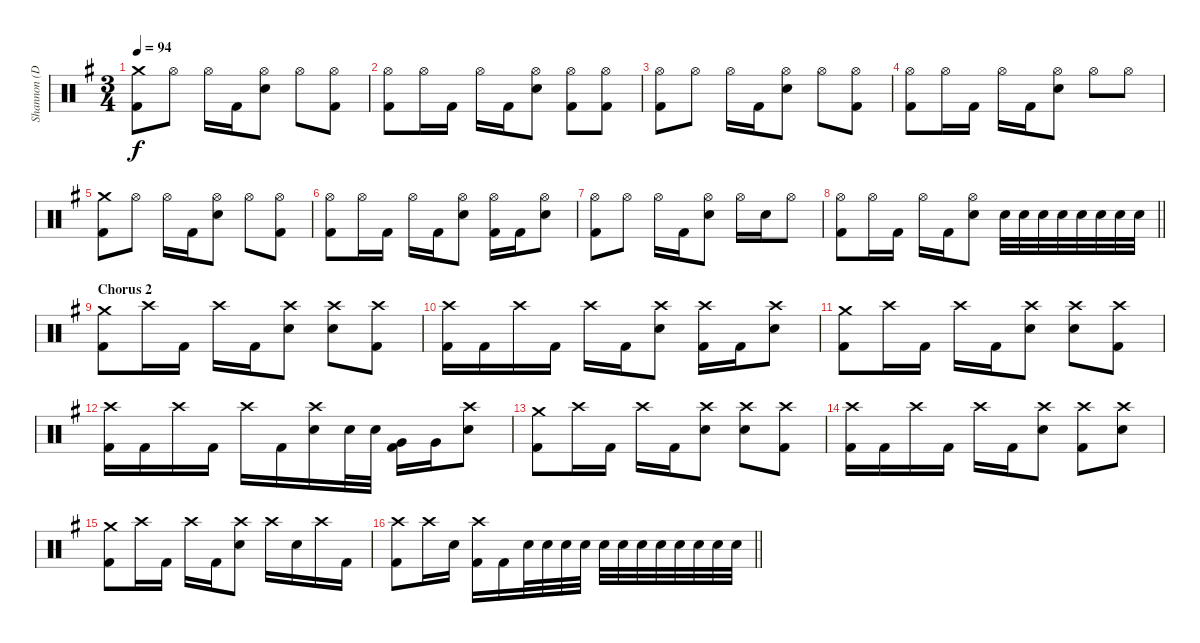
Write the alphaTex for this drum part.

\track ("Shannon (Drums)" "Shannon (D") {instrument percussion}
\staff {score}
\articulation defaults
\ts (3 4)
\tempo 94
\clef neutral
\ks g
("Crash medium (hit)" "Kick (hit) 2").8{dy f} "Hi-Hat (open)".8 "Hi-Hat (open)".16 "Kick (hit) 2".16 ("Hi-Hat (open)" "Electric Snare (hit)").8 "Hi-Hat (open)".8 ("Hi-Hat (open)" "Kick (hit) 2").8 |
("Hi-Hat (open)" "Kick (hit) 2").8 "Hi-Hat (open)".16 "Kick (hit) 2".16 "Hi-Hat (open)".16 "Kick (hit) 2".16 ("Hi-Hat (open)" "Electric Snare (hit)").8 ("Hi-Hat (open)" "Kick (hit) 2").8 ("Hi-Hat (open)" "Kick (hit) 2").8 |
("Hi-Hat (open)" "Kick (hit) 2").8 "Hi-Hat (open)".8 "Hi-Hat (open)".16 "Kick (hit) 2".16 ("Hi-Hat (open)" "Electric Snare (hit)").8 "Hi-Hat (open)".8 ("Hi-Hat (open)" "Kick (hit) 2").8 |
("Hi-Hat (open)" "Kick (hit) 2").8 "Hi-Hat (open)".16 "Kick (hit) 2".16 "Hi-Hat (open)".16 "Kick (hit) 2".16 ("Hi-Hat (open)" "Electric Snare (hit)").8 "Hi-Hat (open)".8 "Hi-Hat (open)".8 |
("Crash medium (hit)" "Kick (hit) 2").8 "Hi-Hat (open)".8 "Hi-Hat (open)".16 "Kick (hit) 2".16 ("Hi-Hat (open)" "Electric Snare (hit)").8 "Hi-Hat (open)".8 ("Hi-Hat (open)" "Kick (hit) 2").8 |
("Hi-Hat (open)" "Kick (hit) 2").8 "Hi-Hat (open)".16 "Kick (hit) 2".16 "Hi-Hat (open)".16 "Kick (hit) 2".16 ("Hi-Hat (open)" "Electric Snare (hit)").8 ("Hi-Hat (open)" "Kick (hit) 2").16 "Kick (hit) 2".16 ("Hi-Hat (open)" "Electric Snare (hit)").8 |
("Hi-Hat (open)" "Kick (hit) 2").8 "Hi-Hat (open)".8 "Hi-Hat (open)".16 "Kick (hit) 2".16 ("Hi-Hat (open)" "Electric Snare (hit)").8 "Hi-Hat (open)".16 "Electric Snare (hit)".16 "Hi-Hat (open)".8 |
\barLineRight lightlight
("Hi-Hat (open)" "Kick (hit) 2").8 "Hi-Hat (open)".16 "Kick (hit) 2".16 "Hi-Hat (open)".16 "Kick (hit) 2".16 ("Hi-Hat (open)" "Electric Snare (hit)").8 "Electric Snare (hit)".32 "Electric Snare (hit)".32 "Electric Snare (hit)".32 "Electric Snare (hit)".32 "Electric Snare (hit)".32 "Electric Snare (hit)".32 "Electric Snare (hit)".32 "Electric Snare (hit)".32 |
\section ("" "Chorus 2")
("Crash medium (hit)" "Kick (hit) 2").8 "Crash high (hit)".16 "Kick (hit) 2".16 "Crash high (hit)".16 "Kick (hit) 2".16 ("Crash high (hit)" "Electric Snare (hit)").8 ("Crash high (hit)" "Electric Snare (hit)").8 ("Crash high (hit)" "Kick (hit) 2").8 |
("Crash high (hit)" "Kick (hit) 2").16 "Kick (hit) 2".16 "Crash high (hit)".16 "Kick (hit) 2".16 "Crash high (hit)".16 "Kick (hit) 2".16 ("Crash high (hit)" "Electric Snare (hit)").8 ("Crash high (hit)" "Kick (hit) 2").16 "Kick (hit) 2".16 ("Crash high (hit)" "Electric Snare (hit)").8 |
("Crash medium (hit)" "Kick (hit) 2").8 "Crash high (hit)".16 "Kick (hit) 2".16 "Crash high (hit)".16 "Kick (hit) 2".16 ("Crash high (hit)" "Electric Snare (hit)").8 ("Crash high (hit)" "Electric Snare (hit)").8 ("Crash high (hit)" "Kick (hit) 2").8 |
("Crash high (hit)" "Kick (hit) 2").16 "Kick (hit) 2".16 "Crash high (hit)".16 "Kick (hit) 2".16 "Crash high (hit)".16 "Kick (hit) 2".16 ("Crash high (hit)" "Electric Snare (hit)").16 "Electric Snare (hit)".32 "Electric Snare (hit)".32 ("Very Low Tom (hit)" "Kick (hit) 2").16 "Very Low Tom (hit)".16 ("Crash high (hit)" "Electric Snare (hit)").8 |
("Crash medium (hit)" "Kick (hit) 2").8 "Crash high (hit)".16 "Kick (hit) 2".16 "Crash high (hit)".16 "Kick (hit) 2".16 ("Crash high (hit)" "Electric Snare (hit)").8 ("Crash high (hit)" "Electric Snare (hit)").8 ("Crash high (hit)" "Kick (hit) 2").8 |
("Crash high (hit)" "Kick (hit) 2").16 "Kick (hit) 2".16 "Crash high (hit)".16 "Kick (hit) 2".16 "Crash high (hit)".16 "Kick (hit) 2".16 ("Crash high (hit)" "Electric Snare (hit)").8 ("Crash high (hit)" "Kick (hit) 2").8 ("Crash high (hit)" "Electric Snare (hit)").8 |
("Crash medium (hit)" "Kick (hit) 2").8 "Crash high (hit)".16 "Kick (hit) 2".16 "Crash high (hit)".16 "Kick (hit) 2".16 ("Crash high (hit)" "Electric Snare (hit)").8 "Crash high (hit)".16 "Electric Snare (hit)".16 "Crash high (hit)".16 "Kick (hit) 2".16 |
\barLineRight lightlight
("Crash high (hit)" "Kick (hit) 2").8 "Crash high (hit)".16 "Electric Snare (hit)".16 ("Crash high (hit)" "Kick (hit) 2").16 "Kick (hit) 2".16 "Electric Snare (hit)".32 "Electric Snare (hit)".32 "Electric Snare (hit)".32 "Electric Snare (hit)".32 "Electric Snare (hit)".32 "Electric Snare (hit)".32 "Electric Snare (hit)".32 "Electric Snare (hit)".32 "Electric Snare (hit)".32 "Electric Snare (hit)".32 "Electric Snare (hit)".32 "Electric Snare (hit)".32
